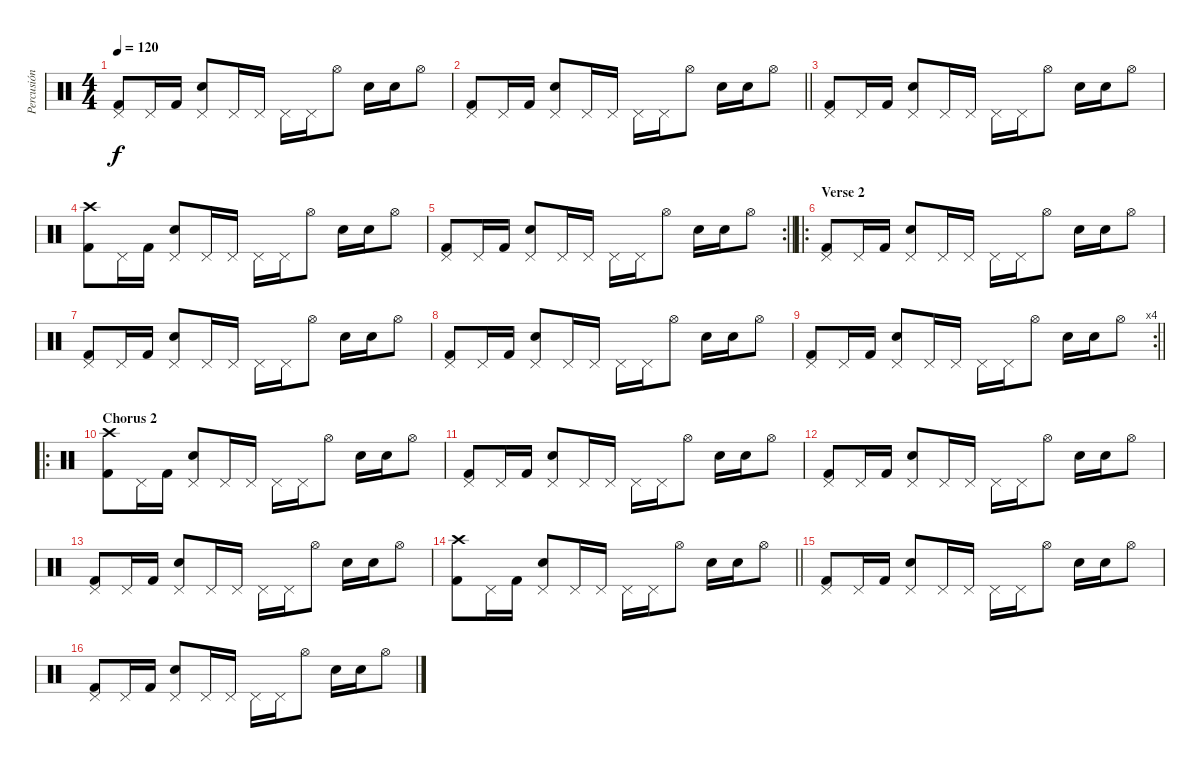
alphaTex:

\track ("Percusión" "Percusión") {instrument percussion}
\staff {score}
\articulation defaults
\ts (4 4)
\tempo 120
\clef neutral
\ks c
("Pedal Hi-Hat (hit)" "Kick (hit) 2").8{dy f} "Pedal Hi-Hat (hit)".16 "Kick (hit) 2".16 ("Pedal Hi-Hat (hit)" "Snare (hit) 2").8 "Pedal Hi-Hat (hit)".16 "Pedal Hi-Hat (hit)".16 "Pedal Hi-Hat (hit)".16 "Pedal Hi-Hat (hit)".16 "Hi-Hat (open)".8 "Snare (hit) 2".16 "Snare (hit) 2".16 "Hi-Hat (open)".8 |
\barLineRight lightlight
("Pedal Hi-Hat (hit)" "Kick (hit) 2").8 "Pedal Hi-Hat (hit)".16 "Kick (hit) 2".16 ("Pedal Hi-Hat (hit)" "Snare (hit) 2").8 "Pedal Hi-Hat (hit)".16 "Pedal Hi-Hat (hit)".16 "Pedal Hi-Hat (hit)".16 "Pedal Hi-Hat (hit)".16 "Hi-Hat (open)".8 "Snare (hit) 2".16 "Snare (hit) 2".16 "Hi-Hat (open)".8 |
("Pedal Hi-Hat (hit)" "Kick (hit) 2").8 "Pedal Hi-Hat (hit)".16 "Kick (hit) 2".16 ("Pedal Hi-Hat (hit)" "Snare (hit) 2").8 "Pedal Hi-Hat (hit)".16 "Pedal Hi-Hat (hit)".16 "Pedal Hi-Hat (hit)".16 "Pedal Hi-Hat (hit)".16 "Hi-Hat (open)".8 "Snare (hit) 2".16 "Snare (hit) 2".16 "Hi-Hat (open)".8 |
("Crash high (hit)" "Kick (hit) 2").8 "Pedal Hi-Hat (hit)".16 "Kick (hit) 2".16 ("Pedal Hi-Hat (hit)" "Snare (hit) 2").8 "Pedal Hi-Hat (hit)".16 "Pedal Hi-Hat (hit)".16 "Pedal Hi-Hat (hit)".16 "Pedal Hi-Hat (hit)".16 "Hi-Hat (open)".8 "Snare (hit) 2".16 "Snare (hit) 2".16 "Hi-Hat (open)".8 |
\rc 2
\barLineRight lightlight
("Pedal Hi-Hat (hit)" "Kick (hit) 2").8 "Pedal Hi-Hat (hit)".16 "Kick (hit) 2".16 ("Pedal Hi-Hat (hit)" "Snare (hit) 2").8 "Pedal Hi-Hat (hit)".16 "Pedal Hi-Hat (hit)".16 "Pedal Hi-Hat (hit)".16 "Pedal Hi-Hat (hit)".16 "Hi-Hat (open)".8 "Snare (hit) 2".16 "Snare (hit) 2".16 "Hi-Hat (open)".8 |
\ro
\section ("" "Verse 2")
("Pedal Hi-Hat (hit)" "Kick (hit) 2").8 "Pedal Hi-Hat (hit)".16 "Kick (hit) 2".16 ("Pedal Hi-Hat (hit)" "Snare (hit) 2").8 "Pedal Hi-Hat (hit)".16 "Pedal Hi-Hat (hit)".16 "Pedal Hi-Hat (hit)".16 "Pedal Hi-Hat (hit)".16 "Hi-Hat (open)".8 "Snare (hit) 2".16 "Snare (hit) 2".16 "Hi-Hat (open)".8 |
("Pedal Hi-Hat (hit)" "Kick (hit) 2").8 "Pedal Hi-Hat (hit)".16 "Kick (hit) 2".16 ("Pedal Hi-Hat (hit)" "Snare (hit) 2").8 "Pedal Hi-Hat (hit)".16 "Pedal Hi-Hat (hit)".16 "Pedal Hi-Hat (hit)".16 "Pedal Hi-Hat (hit)".16 "Hi-Hat (open)".8 "Snare (hit) 2".16 "Snare (hit) 2".16 "Hi-Hat (open)".8 |
("Pedal Hi-Hat (hit)" "Kick (hit) 2").8 "Pedal Hi-Hat (hit)".16 "Kick (hit) 2".16 ("Pedal Hi-Hat (hit)" "Snare (hit) 2").8 "Pedal Hi-Hat (hit)".16 "Pedal Hi-Hat (hit)".16 "Pedal Hi-Hat (hit)".16 "Pedal Hi-Hat (hit)".16 "Hi-Hat (open)".8 "Snare (hit) 2".16 "Snare (hit) 2".16 "Hi-Hat (open)".8 |
\rc 4
\barLineRight lightlight
("Pedal Hi-Hat (hit)" "Kick (hit) 2").8 "Pedal Hi-Hat (hit)".16 "Kick (hit) 2".16 ("Pedal Hi-Hat (hit)" "Snare (hit) 2").8 "Pedal Hi-Hat (hit)".16 "Pedal Hi-Hat (hit)".16 "Pedal Hi-Hat (hit)".16 "Pedal Hi-Hat (hit)".16 "Hi-Hat (open)".8 "Snare (hit) 2".16 "Snare (hit) 2".16 "Hi-Hat (open)".8 |
\ro
\section ("" "Chorus 2")
("Crash high (hit)" "Kick (hit) 2").8 "Pedal Hi-Hat (hit)".16 "Kick (hit) 2".16 ("Pedal Hi-Hat (hit)" "Snare (hit) 2").8 "Pedal Hi-Hat (hit)".16 "Pedal Hi-Hat (hit)".16 "Pedal Hi-Hat (hit)".16 "Pedal Hi-Hat (hit)".16 "Hi-Hat (open)".8 "Snare (hit) 2".16 "Snare (hit) 2".16 "Hi-Hat (open)".8 |
("Pedal Hi-Hat (hit)" "Kick (hit) 2").8 "Pedal Hi-Hat (hit)".16 "Kick (hit) 2".16 ("Pedal Hi-Hat (hit)" "Snare (hit) 2").8 "Pedal Hi-Hat (hit)".16 "Pedal Hi-Hat (hit)".16 "Pedal Hi-Hat (hit)".16 "Pedal Hi-Hat (hit)".16 "Hi-Hat (open)".8 "Snare (hit) 2".16 "Snare (hit) 2".16 "Hi-Hat (open)".8 |
("Pedal Hi-Hat (hit)" "Kick (hit) 2").8 "Pedal Hi-Hat (hit)".16 "Kick (hit) 2".16 ("Pedal Hi-Hat (hit)" "Snare (hit) 2").8 "Pedal Hi-Hat (hit)".16 "Pedal Hi-Hat (hit)".16 "Pedal Hi-Hat (hit)".16 "Pedal Hi-Hat (hit)".16 "Hi-Hat (open)".8 "Snare (hit) 2".16 "Snare (hit) 2".16 "Hi-Hat (open)".8 |
("Pedal Hi-Hat (hit)" "Kick (hit) 2").8 "Pedal Hi-Hat (hit)".16 "Kick (hit) 2".16 ("Pedal Hi-Hat (hit)" "Snare (hit) 2").8 "Pedal Hi-Hat (hit)".16 "Pedal Hi-Hat (hit)".16 "Pedal Hi-Hat (hit)".16 "Pedal Hi-Hat (hit)".16 "Hi-Hat (open)".8 "Snare (hit) 2".16 "Snare (hit) 2".16 "Hi-Hat (open)".8 |
\barLineRight lightlight
("Crash high (hit)" "Kick (hit) 2").8 "Pedal Hi-Hat (hit)".16 "Kick (hit) 2".16 ("Pedal Hi-Hat (hit)" "Snare (hit) 2").8 "Pedal Hi-Hat (hit)".16 "Pedal Hi-Hat (hit)".16 "Pedal Hi-Hat (hit)".16 "Pedal Hi-Hat (hit)".16 "Hi-Hat (open)".8 "Snare (hit) 2".16 "Snare (hit) 2".16 "Hi-Hat (open)".8 |
("Pedal Hi-Hat (hit)" "Kick (hit) 2").8 "Pedal Hi-Hat (hit)".16 "Kick (hit) 2".16 ("Pedal Hi-Hat (hit)" "Snare (hit) 2").8 "Pedal Hi-Hat (hit)".16 "Pedal Hi-Hat (hit)".16 "Pedal Hi-Hat (hit)".16 "Pedal Hi-Hat (hit)".16 "Hi-Hat (open)".8 "Snare (hit) 2".16 "Snare (hit) 2".16 "Hi-Hat (open)".8 |
("Pedal Hi-Hat (hit)" "Kick (hit) 2").8 "Pedal Hi-Hat (hit)".16 "Kick (hit) 2".16 ("Pedal Hi-Hat (hit)" "Snare (hit) 2").8 "Pedal Hi-Hat (hit)".16 "Pedal Hi-Hat (hit)".16 "Pedal Hi-Hat (hit)".16 "Pedal Hi-Hat (hit)".16 "Hi-Hat (open)".8 "Snare (hit) 2".16 "Snare (hit) 2".16 "Hi-Hat (open)".8
